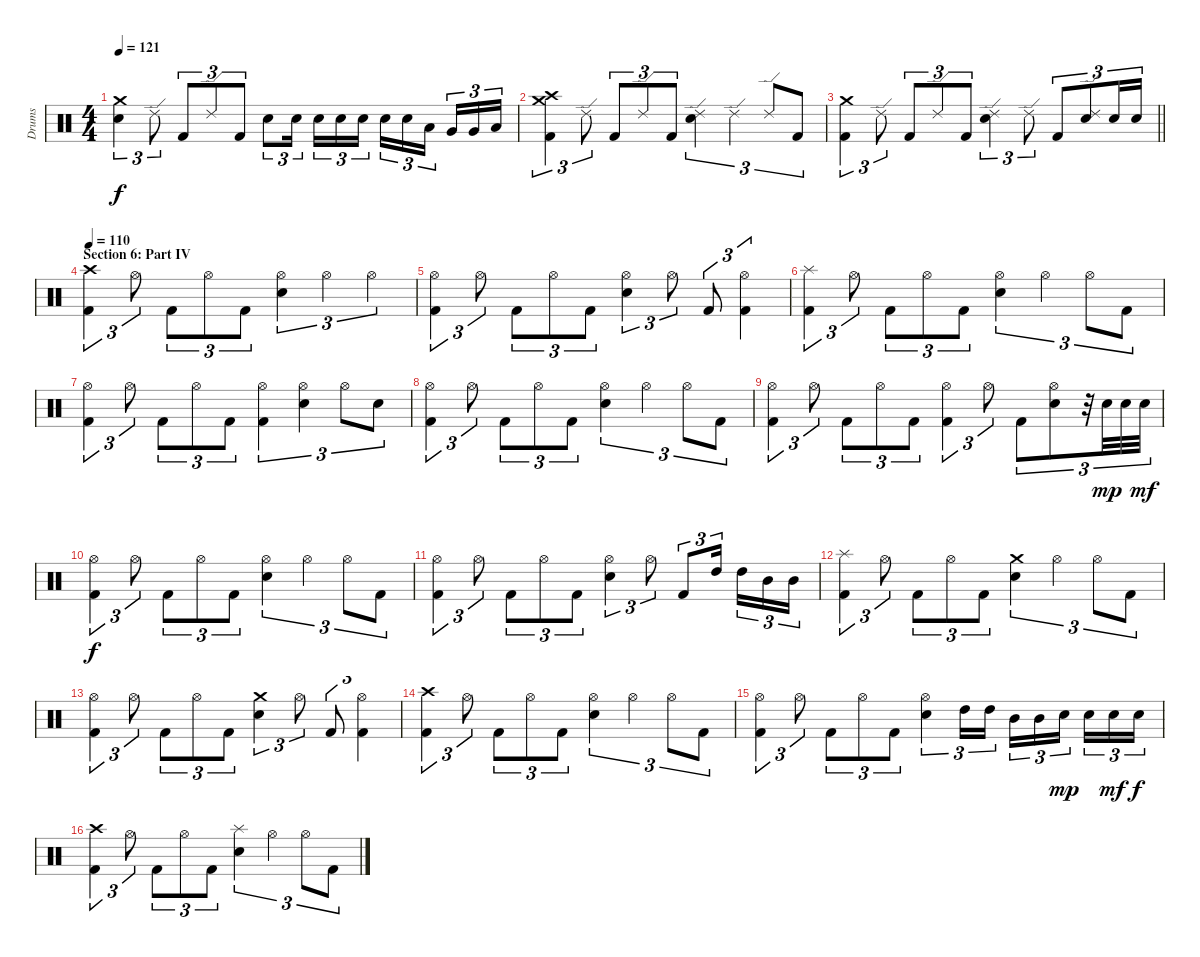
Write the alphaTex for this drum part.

\track ("Drums" "Drums") {instrument percussion}
\staff {score}
\articulation defaults
\ts (4 4)
\tempo 121
\clef neutral
\ks c
("Crash medium (hit)" "Electric Snare (hit)").4{tu (3 2) dy f} "Ride (edge) 2".8{tu (3 2)} "Kick (hit) 2".8{tu (3 2)} "Ride (edge) 2".8{tu (3 2)} "Kick (hit) 2".8{tu (3 2)} "Electric Snare (hit)".8{tu (3 2)} "Electric Snare (hit)".16{tu (3 2) beam splitsecondary} "Electric Snare (hit)".16{tu (3 2)} "Electric Snare (hit)".16{tu (3 2)} "Electric Snare (hit)".16{tu (3 2)} "Electric Snare (hit)".16{tu (3 2)} "Electric Snare (hit)".16{tu (3 2)} "Low Tom (hit)".16{tu (3 2) beam splitsecondary} "Very Low Tom (hit)".16{tu (3 2)} "Very Low Tom (hit)".16{tu (3 2)} "Low Floor Tom (hit)".16{tu (3 2)} |
("Crash medium (hit)" "Crash high (hit)" "Kick (hit) 2").4{tu (3 2)} "Ride (edge) 2".8{tu (3 2)} "Kick (hit) 2".8{tu (3 2)} "Ride (edge) 2".8{tu (3 2)} "Kick (hit) 2".8{tu (3 2)} ("Ride (edge) 2" "Electric Snare (hit)").4{tu (3 2)} "Ride (edge) 2".4{tu (3 2)} "Ride (edge) 2".8{tu (3 2)} "Kick (hit) 2".8{tu (3 2)} |
\barLineRight lightlight
("Crash medium (hit)" "Kick (hit) 2").4{tu (3 2)} "Ride (edge) 2".8{tu (3 2)} "Kick (hit) 2".8{tu (3 2)} "Ride (edge) 2".8{tu (3 2)} "Kick (hit) 2".8{tu (3 2)} ("Ride (edge) 2" "Electric Snare (hit)").4{tu (3 2)} "Ride (edge) 2".8{tu (3 2)} "Kick (hit) 2".8{tu (3 2)} ("Ride (edge) 2" "Electric Snare (hit)").8{tu (3 2)} "Electric Snare (hit)".16{tu (3 2)} "Electric Snare (hit)".16{tu (3 2)} |
\section ("" "Section 6: Part IV")
\tempo 110
("Crash high (hit)" "Kick (hit) 2").4{tu (3 2)} "Hi-Hat (open)".8{tu (3 2)} "Kick (hit) 2".8{tu (3 2)} "Hi-Hat (open)".8{tu (3 2)} "Kick (hit) 2".8{tu (3 2)} ("Hi-Hat (open)" "Electric Snare (hit)").4{tu (3 2)} "Hi-Hat (open)".4{tu (3 2)} "Hi-Hat (open)".4{tu (3 2)} |
("Hi-Hat (open)" "Kick (hit) 2").4{tu (3 2)} "Hi-Hat (open)".8{tu (3 2)} "Kick (hit) 2".8{tu (3 2)} "Hi-Hat (open)".8{tu (3 2)} "Kick (hit) 2".8{tu (3 2)} ("Hi-Hat (open)" "Electric Snare (hit)").4{tu (3 2)} "Hi-Hat (open)".8{tu (3 2)} "Kick (hit) 2".8{tu (3 2)} ("Hi-Hat (open)" "Kick (hit) 2").4{tu (3 2)} |
("Splash (hit)" "Kick (hit) 2").4{tu (3 2)} "Hi-Hat (open)".8{tu (3 2)} "Kick (hit) 2".8{tu (3 2)} "Hi-Hat (open)".8{tu (3 2)} "Kick (hit) 2".8{tu (3 2)} ("Hi-Hat (open)" "Electric Snare (hit)").4{tu (3 2)} "Hi-Hat (open)".4{tu (3 2)} "Hi-Hat (open)".8{tu (3 2)} "Kick (hit) 2".8{tu (3 2)} |
("Hi-Hat (open)" "Kick (hit) 2").4{tu (3 2)} "Hi-Hat (open)".8{tu (3 2)} "Kick (hit) 2".8{tu (3 2)} "Hi-Hat (open)".8{tu (3 2)} "Kick (hit) 2".8{tu (3 2)} ("Hi-Hat (open)" "Kick (hit) 2").4{tu (3 2)} ("Hi-Hat (open)" "Electric Snare (hit)").4{tu (3 2)} "Hi-Hat (open)".8{tu (3 2)} "Electric Snare (hit)".8{tu (3 2)} |
("Hi-Hat (open)" "Kick (hit) 2").4{tu (3 2)} "Hi-Hat (open)".8{tu (3 2)} "Kick (hit) 2".8{tu (3 2)} "Hi-Hat (open)".8{tu (3 2)} "Kick (hit) 2".8{tu (3 2)} ("Hi-Hat (open)" "Electric Snare (hit)").4{tu (3 2)} "Hi-Hat (open)".4{tu (3 2)} "Hi-Hat (open)".8{tu (3 2)} "Kick (hit) 2".8{tu (3 2)} |
("Hi-Hat (open)" "Kick (hit) 2").4{tu (3 2)} "Hi-Hat (open)".8{tu (3 2)} "Kick (hit) 2".8{tu (3 2)} "Hi-Hat (open)".8{tu (3 2)} "Kick (hit) 2".8{tu (3 2)} ("Hi-Hat (open)" "Kick (hit) 2").4{tu (3 2)} "Hi-Hat (open)".8{tu (3 2)} "Kick (hit) 2".8{tu (3 2)} ("Hi-Hat (open)" "Electric Snare (hit)").8{tu (3 2)} r.32{tu (3 2)} "Electric Snare (hit)".32{tu (3 2) dy mp} "Electric Snare (hit)".32{tu (3 2)} "Electric Snare (hit)".32{tu (3 2) dy mf} |
("Hi-Hat (open)" "Kick (hit) 2").4{tu (3 2) dy f} "Hi-Hat (open)".8{tu (3 2)} "Kick (hit) 2".8{tu (3 2)} "Hi-Hat (open)".8{tu (3 2)} "Kick (hit) 2".8{tu (3 2)} ("Hi-Hat (open)" "Electric Snare (hit)").4{tu (3 2)} "Hi-Hat (open)".4{tu (3 2)} "Hi-Hat (open)".8{tu (3 2)} "Kick (hit) 2".8{tu (3 2)} |
("Hi-Hat (open)" "Kick (hit) 2").4{tu (3 2)} "Hi-Hat (open)".8{tu (3 2)} "Kick (hit) 2".8{tu (3 2)} "Hi-Hat (open)".8{tu (3 2)} "Kick (hit) 2".8{tu (3 2)} ("Hi-Hat (open)" "Electric Snare (hit)").4{tu (3 2)} "Hi-Hat (open)".8{tu (3 2)} "Kick (hit) 2".8{tu (3 2)} "High Tom (hit)".16{tu (3 2) beam splitsecondary} "High Tom (hit)".16{tu (3 2)} "Mid Tom (hit)".16{tu (3 2)} "Mid Tom (hit)".16{tu (3 2)} |
("Splash (hit)" "Kick (hit) 2").4{tu (3 2)} "Hi-Hat (open)".8{tu (3 2)} "Kick (hit) 2".8{tu (3 2)} "Hi-Hat (open)".8{tu (3 2)} "Kick (hit) 2".8{tu (3 2)} ("Crash medium (hit)" "Electric Snare (hit)").4{tu (3 2)} "Hi-Hat (open)".4{tu (3 2)} "Hi-Hat (open)".8{tu (3 2)} "Kick (hit) 2".8{tu (3 2)} |
("Hi-Hat (open)" "Kick (hit) 2").4{tu (3 2)} "Hi-Hat (open)".8{tu (3 2)} "Kick (hit) 2".8{tu (3 2)} "Hi-Hat (open)".8{tu (3 2)} "Kick (hit) 2".8{tu (3 2)} ("Crash medium (hit)" "Electric Snare (hit)").4{tu (3 2)} "Hi-Hat (open)".8{tu (3 2)} "Kick (hit) 2".8{tu (3 2)} ("Hi-Hat (open)" "Kick (hit) 2").4{tu (3 2)} |
("Crash high (hit)" "Kick (hit) 2").4{tu (3 2)} "Hi-Hat (open)".8{tu (3 2)} "Kick (hit) 2".8{tu (3 2)} "Hi-Hat (open)".8{tu (3 2)} "Kick (hit) 2".8{tu (3 2)} ("Hi-Hat (open)" "Electric Snare (hit)").4{tu (3 2)} "Hi-Hat (open)".4{tu (3 2)} "Hi-Hat (open)".8{tu (3 2)} "Kick (hit) 2".8{tu (3 2)} |
("Hi-Hat (open)" "Kick (hit) 2").4{tu (3 2)} "Hi-Hat (open)".8{tu (3 2)} "Kick (hit) 2".8{tu (3 2)} "Hi-Hat (open)".8{tu (3 2)} "Kick (hit) 2".8{tu (3 2)} ("Hi-Hat (open)" "Electric Snare (hit)").4{tu (3 2)} "High Tom (hit)".16{tu (3 2)} "High Tom (hit)".16{tu (3 2)} "Mid Tom (hit)".16{tu (3 2)} "Mid Tom (hit)".16{tu (3 2)} "Electric Snare (hit)".16{tu (3 2) dy mp beam splitsecondary} "Electric Snare (hit)".16{tu (3 2)} "Electric Snare (hit)".16{tu (3 2) dy mf} "Electric Snare (hit)".16{tu (3 2) dy f} |
("Crash high (hit)" "Kick (hit) 2").4{tu (3 2)} "Hi-Hat (open)".8{tu (3 2)} "Kick (hit) 2".8{tu (3 2)} "Hi-Hat (open)".8{tu (3 2)} "Kick (hit) 2".8{tu (3 2)} ("Splash (hit)" "Electric Snare (hit)").4{tu (3 2)} "Hi-Hat (open)".4{tu (3 2)} "Hi-Hat (open)".8{tu (3 2)} "Kick (hit) 2".8{tu (3 2)}
